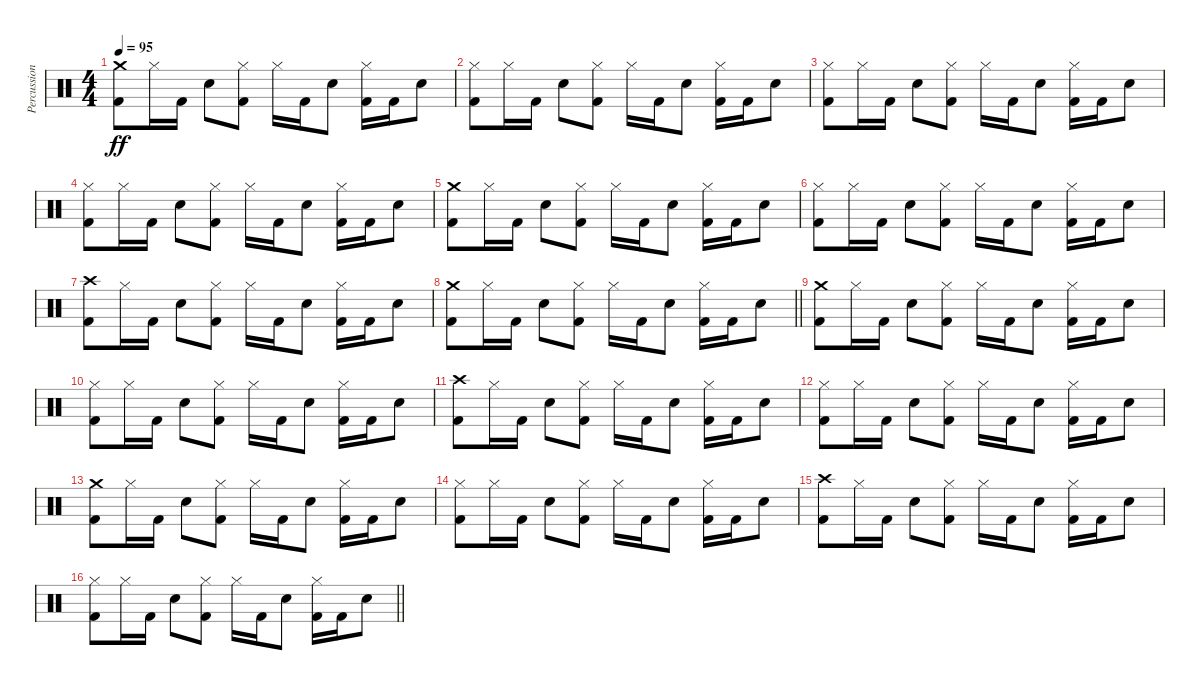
\track ("Percussion" "Percussion") {instrument percussion}
\staff {score}
\articulation defaults
\ts (4 4)
\tempo 95
\clef neutral
\ks c
("Crash medium (hit)" "Kick (hit) 2").8{dy ff} "Hi-Hat (closed)".16 "Kick (hit) 2".16 "Electric Snare (hit)".8 ("Hi-Hat (closed)" "Kick (hit) 2").8 "Hi-Hat (closed)".16 "Kick (hit) 2".16 "Electric Snare (hit)".8 ("Hi-Hat (closed)" "Kick (hit) 2").16 "Kick (hit) 2".16 "Electric Snare (hit)".8 |
("Hi-Hat (closed)" "Kick (hit) 2").8 "Hi-Hat (closed)".16 "Kick (hit) 2".16 "Electric Snare (hit)".8 ("Hi-Hat (closed)" "Kick (hit) 2").8 "Hi-Hat (closed)".16 "Kick (hit) 2".16 "Electric Snare (hit)".8 ("Hi-Hat (closed)" "Kick (hit) 2").16 "Kick (hit) 2".16 "Electric Snare (hit)".8 |
("Hi-Hat (closed)" "Kick (hit) 2").8 "Hi-Hat (closed)".16 "Kick (hit) 2".16 "Electric Snare (hit)".8 ("Hi-Hat (closed)" "Kick (hit) 2").8 "Hi-Hat (closed)".16 "Kick (hit) 2".16 "Electric Snare (hit)".8 ("Hi-Hat (closed)" "Kick (hit) 2").16 "Kick (hit) 2".16 "Electric Snare (hit)".8 |
("Hi-Hat (closed)" "Kick (hit) 2").8 "Hi-Hat (closed)".16 "Kick (hit) 2".16 "Electric Snare (hit)".8 ("Hi-Hat (closed)" "Kick (hit) 2").8 "Hi-Hat (closed)".16 "Kick (hit) 2".16 "Electric Snare (hit)".8 ("Hi-Hat (closed)" "Kick (hit) 2").16 "Kick (hit) 2".16 "Electric Snare (hit)".8 |
("Crash medium (hit)" "Kick (hit) 2").8 "Hi-Hat (closed)".16 "Kick (hit) 2".16 "Electric Snare (hit)".8 ("Hi-Hat (closed)" "Kick (hit) 2").8 "Hi-Hat (closed)".16 "Kick (hit) 2".16 "Electric Snare (hit)".8 ("Hi-Hat (closed)" "Kick (hit) 2").16 "Kick (hit) 2".16 "Electric Snare (hit)".8 |
("Hi-Hat (closed)" "Kick (hit) 2").8 "Hi-Hat (closed)".16 "Kick (hit) 2".16 "Electric Snare (hit)".8 ("Hi-Hat (closed)" "Kick (hit) 2").8 "Hi-Hat (closed)".16 "Kick (hit) 2".16 "Electric Snare (hit)".8 ("Hi-Hat (closed)" "Kick (hit) 2").16 "Kick (hit) 2".16 "Electric Snare (hit)".8 |
("Crash high (hit)" "Kick (hit) 2").8 "Hi-Hat (closed)".16 "Kick (hit) 2".16 "Electric Snare (hit)".8 ("Hi-Hat (closed)" "Kick (hit) 2").8 "Hi-Hat (closed)".16 "Kick (hit) 2".16 "Electric Snare (hit)".8 ("Hi-Hat (closed)" "Kick (hit) 2").16 "Kick (hit) 2".16 "Electric Snare (hit)".8 |
\barLineRight lightlight
("Crash medium (hit)" "Kick (hit) 2").8 "Hi-Hat (closed)".16 "Kick (hit) 2".16 "Electric Snare (hit)".8 ("Hi-Hat (closed)" "Kick (hit) 2").8 "Hi-Hat (closed)".16 "Kick (hit) 2".16 "Electric Snare (hit)".8 ("Hi-Hat (closed)" "Kick (hit) 2").16 "Kick (hit) 2".16 "Electric Snare (hit)".8 |
("Crash medium (hit)" "Kick (hit) 2").8 "Hi-Hat (closed)".16 "Kick (hit) 2".16 "Electric Snare (hit)".8 ("Hi-Hat (closed)" "Kick (hit) 2").8 "Hi-Hat (closed)".16 "Kick (hit) 2".16 "Electric Snare (hit)".8 ("Hi-Hat (closed)" "Kick (hit) 2").16 "Kick (hit) 2".16 "Electric Snare (hit)".8 |
("Hi-Hat (closed)" "Kick (hit) 2").8 "Hi-Hat (closed)".16 "Kick (hit) 2".16 "Electric Snare (hit)".8 ("Hi-Hat (closed)" "Kick (hit) 2").8 "Hi-Hat (closed)".16 "Kick (hit) 2".16 "Electric Snare (hit)".8 ("Hi-Hat (closed)" "Kick (hit) 2").16 "Kick (hit) 2".16 "Electric Snare (hit)".8 |
("Crash high (hit)" "Kick (hit) 2").8 "Hi-Hat (closed)".16 "Kick (hit) 2".16 "Electric Snare (hit)".8 ("Hi-Hat (closed)" "Kick (hit) 2").8 "Hi-Hat (closed)".16 "Kick (hit) 2".16 "Electric Snare (hit)".8 ("Hi-Hat (closed)" "Kick (hit) 2").16 "Kick (hit) 2".16 "Electric Snare (hit)".8 |
("Hi-Hat (closed)" "Kick (hit) 2").8 "Hi-Hat (closed)".16 "Kick (hit) 2".16 "Electric Snare (hit)".8 ("Hi-Hat (closed)" "Kick (hit) 2").8 "Hi-Hat (closed)".16 "Kick (hit) 2".16 "Electric Snare (hit)".8 ("Hi-Hat (closed)" "Kick (hit) 2").16 "Kick (hit) 2".16 "Electric Snare (hit)".8 |
("Crash medium (hit)" "Kick (hit) 2").8 "Hi-Hat (closed)".16 "Kick (hit) 2".16 "Electric Snare (hit)".8 ("Hi-Hat (closed)" "Kick (hit) 2").8 "Hi-Hat (closed)".16 "Kick (hit) 2".16 "Electric Snare (hit)".8 ("Hi-Hat (closed)" "Kick (hit) 2").16 "Kick (hit) 2".16 "Electric Snare (hit)".8 |
("Hi-Hat (closed)" "Kick (hit) 2").8 "Hi-Hat (closed)".16 "Kick (hit) 2".16 "Electric Snare (hit)".8 ("Hi-Hat (closed)" "Kick (hit) 2").8 "Hi-Hat (closed)".16 "Kick (hit) 2".16 "Electric Snare (hit)".8 ("Hi-Hat (closed)" "Kick (hit) 2").16 "Kick (hit) 2".16 "Electric Snare (hit)".8 |
("Crash high (hit)" "Kick (hit) 2").8 "Hi-Hat (closed)".16 "Kick (hit) 2".16 "Electric Snare (hit)".8 ("Hi-Hat (closed)" "Kick (hit) 2").8 "Hi-Hat (closed)".16 "Kick (hit) 2".16 "Electric Snare (hit)".8 ("Hi-Hat (closed)" "Kick (hit) 2").16 "Kick (hit) 2".16 "Electric Snare (hit)".8 |
\barLineRight lightlight
("Hi-Hat (closed)" "Kick (hit) 2").8 "Hi-Hat (closed)".16 "Kick (hit) 2".16 "Electric Snare (hit)".8 ("Hi-Hat (closed)" "Kick (hit) 2").8 "Hi-Hat (closed)".16 "Kick (hit) 2".16 "Electric Snare (hit)".8 ("Hi-Hat (closed)" "Kick (hit) 2").16 "Kick (hit) 2".16 "Electric Snare (hit)".8
